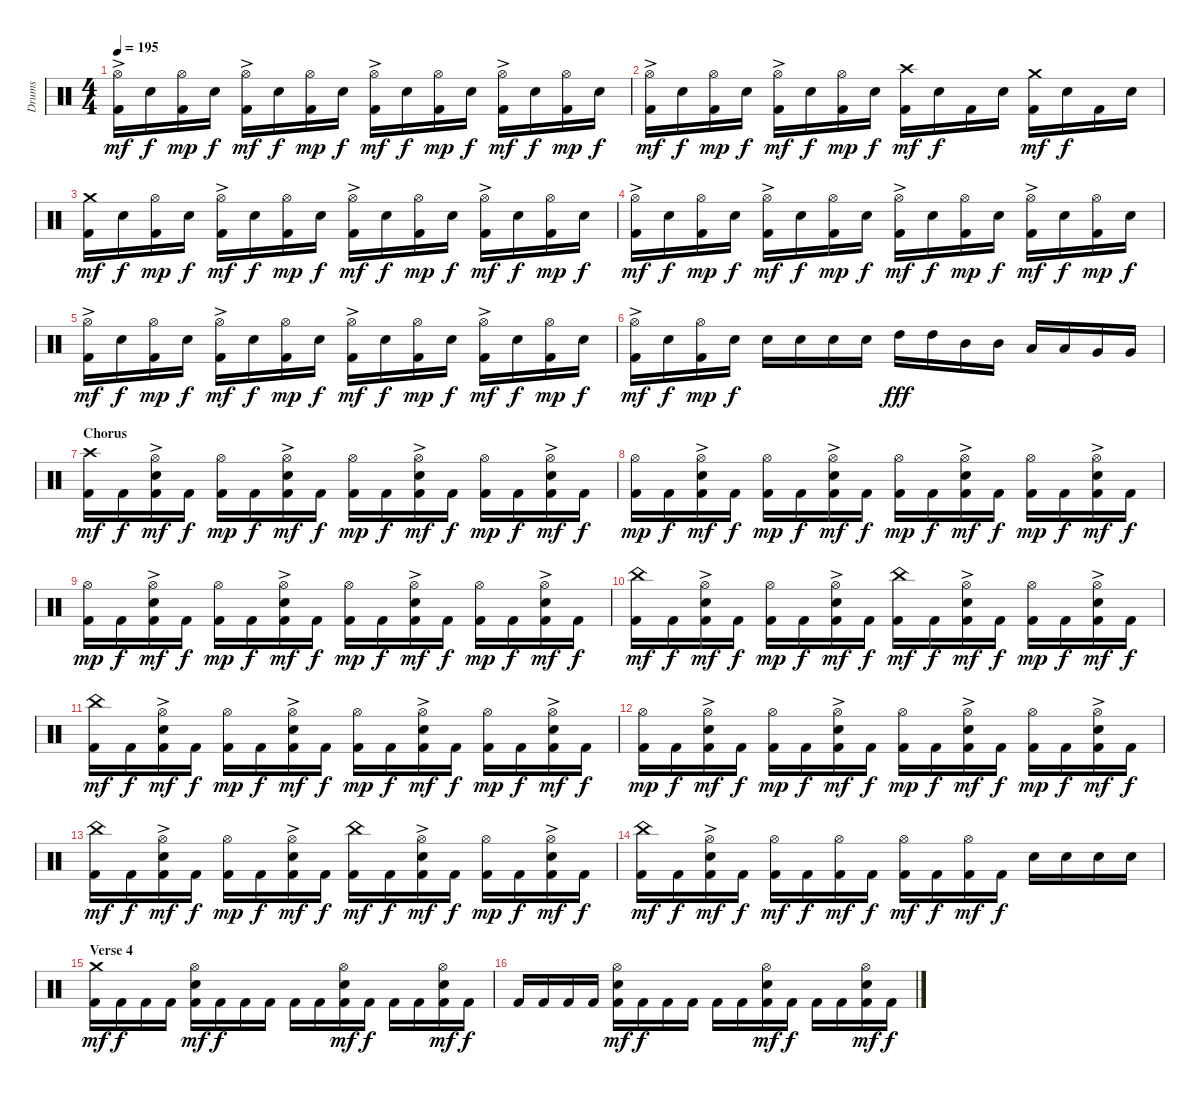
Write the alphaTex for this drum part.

\track ("Drums" "Drums") {instrument percussion}
\staff {score}
\articulation defaults
\ts (4 4)
\tempo 195
\clef neutral
\ks c
("Hi-Hat (open)"{ac} "Kick (hit) 2").16{dy mf} "Electric Snare (hit)".16{dy f} ("Hi-Hat (open)" "Kick (hit) 2").16{dy mp} "Electric Snare (hit)".16{dy f} ("Hi-Hat (open)"{ac} "Kick (hit) 2").16{dy mf} "Electric Snare (hit)".16{dy f} ("Hi-Hat (open)" "Kick (hit) 2").16{dy mp} "Electric Snare (hit)".16{dy f} ("Hi-Hat (open)"{ac} "Kick (hit) 2").16{dy mf} "Electric Snare (hit)".16{dy f} ("Hi-Hat (open)" "Kick (hit) 2").16{dy mp} "Electric Snare (hit)".16{dy f} ("Hi-Hat (open)"{ac} "Kick (hit) 2").16{dy mf} "Electric Snare (hit)".16{dy f} ("Hi-Hat (open)" "Kick (hit) 2").16{dy mp} "Electric Snare (hit)".16{dy f} |
("Hi-Hat (open)"{ac} "Kick (hit) 2").16{dy mf} "Electric Snare (hit)".16{dy f} ("Hi-Hat (open)" "Kick (hit) 2").16{dy mp} "Electric Snare (hit)".16{dy f} ("Hi-Hat (open)"{ac} "Kick (hit) 2").16{dy mf} "Electric Snare (hit)".16{dy f} ("Hi-Hat (open)" "Kick (hit) 2").16{dy mp} "Electric Snare (hit)".16{dy f} ("Crash high (hit)" "Kick (hit) 2").16{dy mf} "Electric Snare (hit)".16{dy f} "Kick (hit) 2".16 "Electric Snare (hit)".16 ("Crash medium (hit)" "Kick (hit) 2").16{dy mf} "Electric Snare (hit)".16{dy f} "Kick (hit) 2".16 "Electric Snare (hit)".16 |
("Crash medium (hit)" "Kick (hit) 2").16{dy mf} "Electric Snare (hit)".16{dy f} ("Hi-Hat (open)" "Kick (hit) 2").16{dy mp} "Electric Snare (hit)".16{dy f} ("Hi-Hat (open)"{ac} "Kick (hit) 2").16{dy mf} "Electric Snare (hit)".16{dy f} ("Hi-Hat (open)" "Kick (hit) 2").16{dy mp} "Electric Snare (hit)".16{dy f} ("Hi-Hat (open)"{ac} "Kick (hit) 2").16{dy mf} "Electric Snare (hit)".16{dy f} ("Hi-Hat (open)" "Kick (hit) 2").16{dy mp} "Electric Snare (hit)".16{dy f} ("Hi-Hat (open)"{ac} "Kick (hit) 2").16{dy mf} "Electric Snare (hit)".16{dy f} ("Hi-Hat (open)" "Kick (hit) 2").16{dy mp} "Electric Snare (hit)".16{dy f} |
("Hi-Hat (open)"{ac} "Kick (hit) 2").16{dy mf} "Electric Snare (hit)".16{dy f} ("Hi-Hat (open)" "Kick (hit) 2").16{dy mp} "Electric Snare (hit)".16{dy f} ("Hi-Hat (open)"{ac} "Kick (hit) 2").16{dy mf} "Electric Snare (hit)".16{dy f} ("Hi-Hat (open)" "Kick (hit) 2").16{dy mp} "Electric Snare (hit)".16{dy f} ("Hi-Hat (open)"{ac} "Kick (hit) 2").16{dy mf} "Electric Snare (hit)".16{dy f} ("Hi-Hat (open)" "Kick (hit) 2").16{dy mp} "Electric Snare (hit)".16{dy f} ("Hi-Hat (open)"{ac} "Kick (hit) 2").16{dy mf} "Electric Snare (hit)".16{dy f} ("Hi-Hat (open)" "Kick (hit) 2").16{dy mp} "Electric Snare (hit)".16{dy f} |
("Hi-Hat (open)"{ac} "Kick (hit) 2").16{dy mf} "Electric Snare (hit)".16{dy f} ("Hi-Hat (open)" "Kick (hit) 2").16{dy mp} "Electric Snare (hit)".16{dy f} ("Hi-Hat (open)"{ac} "Kick (hit) 2").16{dy mf} "Electric Snare (hit)".16{dy f} ("Hi-Hat (open)" "Kick (hit) 2").16{dy mp} "Electric Snare (hit)".16{dy f} ("Hi-Hat (open)"{ac} "Kick (hit) 2").16{dy mf} "Electric Snare (hit)".16{dy f} ("Hi-Hat (open)" "Kick (hit) 2").16{dy mp} "Electric Snare (hit)".16{dy f} ("Hi-Hat (open)"{ac} "Kick (hit) 2").16{dy mf} "Electric Snare (hit)".16{dy f} ("Hi-Hat (open)" "Kick (hit) 2").16{dy mp} "Electric Snare (hit)".16{dy f} |
("Hi-Hat (open)"{ac} "Kick (hit) 2").16{dy mf} "Electric Snare (hit)".16{dy f} ("Hi-Hat (open)" "Kick (hit) 2").16{dy mp} "Electric Snare (hit)".16{dy f} "Electric Snare (hit)".16 "Electric Snare (hit)".16 "Electric Snare (hit)".16 "Electric Snare (hit)".16 "High Tom (hit)".16{dy fff} "High Tom (hit)".16 "Mid Tom (hit)".16 "Mid Tom (hit)".16 "Low Tom (hit)".16 "Low Tom (hit)".16 "Very Low Tom (hit)".16 "Very Low Tom (hit)".16 |
\section ("" "Chorus")
("Crash high (hit)" "Kick (hit) 2").16{dy mf} "Kick (hit) 2".16{dy f} ("Hi-Hat (open)"{ac} "Electric Snare (hit)" "Kick (hit) 2").16{dy mf} "Kick (hit) 2".16{dy f} ("Hi-Hat (open)" "Kick (hit) 2").16{dy mp} "Kick (hit) 2".16{dy f} ("Hi-Hat (open)"{ac} "Electric Snare (hit)" "Kick (hit) 2").16{dy mf} "Kick (hit) 2".16{dy f} ("Hi-Hat (open)" "Kick (hit) 2").16{dy mp} "Kick (hit) 2".16{dy f} ("Hi-Hat (open)"{ac} "Electric Snare (hit)" "Kick (hit) 2").16{dy mf} "Kick (hit) 2".16{dy f} ("Hi-Hat (open)" "Kick (hit) 2").16{dy mp} "Kick (hit) 2".16{dy f} ("Hi-Hat (open)"{ac} "Electric Snare (hit)" "Kick (hit) 2").16{dy mf} "Kick (hit) 2".16{dy f} |
("Hi-Hat (open)" "Kick (hit) 2").16{dy mp} "Kick (hit) 2".16{dy f} ("Hi-Hat (open)"{ac} "Electric Snare (hit)" "Kick (hit) 2").16{dy mf} "Kick (hit) 2".16{dy f} ("Hi-Hat (open)" "Kick (hit) 2").16{dy mp} "Kick (hit) 2".16{dy f} ("Hi-Hat (open)"{ac} "Electric Snare (hit)" "Kick (hit) 2").16{dy mf} "Kick (hit) 2".16{dy f} ("Hi-Hat (open)" "Kick (hit) 2").16{dy mp} "Kick (hit) 2".16{dy f} ("Hi-Hat (open)"{ac} "Electric Snare (hit)" "Kick (hit) 2").16{dy mf} "Kick (hit) 2".16{dy f} ("Hi-Hat (open)" "Kick (hit) 2").16{dy mp} "Kick (hit) 2".16{dy f} ("Hi-Hat (open)"{ac} "Electric Snare (hit)" "Kick (hit) 2").16{dy mf} "Kick (hit) 2".16{dy f} |
("Hi-Hat (open)" "Kick (hit) 2").16{dy mp} "Kick (hit) 2".16{dy f} ("Hi-Hat (open)"{ac} "Electric Snare (hit)" "Kick (hit) 2").16{dy mf} "Kick (hit) 2".16{dy f} ("Hi-Hat (open)" "Kick (hit) 2").16{dy mp} "Kick (hit) 2".16{dy f} ("Hi-Hat (open)"{ac} "Electric Snare (hit)" "Kick (hit) 2").16{dy mf} "Kick (hit) 2".16{dy f} ("Hi-Hat (open)" "Kick (hit) 2").16{dy mp} "Kick (hit) 2".16{dy f} ("Hi-Hat (open)"{ac} "Electric Snare (hit)" "Kick (hit) 2").16{dy mf} "Kick (hit) 2".16{dy f} ("Hi-Hat (open)" "Kick (hit) 2").16{dy mp} "Kick (hit) 2".16{dy f} ("Hi-Hat (open)"{ac} "Electric Snare (hit)" "Kick (hit) 2").16{dy mf} "Kick (hit) 2".16{dy f} |
("China (hit)" "Kick (hit) 2").16{dy mf} "Kick (hit) 2".16{dy f} ("Hi-Hat (open)"{ac} "Electric Snare (hit)" "Kick (hit) 2").16{dy mf} "Kick (hit) 2".16{dy f} ("Hi-Hat (open)" "Kick (hit) 2").16{dy mp} "Kick (hit) 2".16{dy f} ("Hi-Hat (open)"{ac} "Electric Snare (hit)" "Kick (hit) 2").16{dy mf} "Kick (hit) 2".16{dy f} ("China (hit)" "Kick (hit) 2").16{dy mf} "Kick (hit) 2".16{dy f} ("Hi-Hat (open)"{ac} "Electric Snare (hit)" "Kick (hit) 2").16{dy mf} "Kick (hit) 2".16{dy f} ("Hi-Hat (open)" "Kick (hit) 2").16{dy mp} "Kick (hit) 2".16{dy f} ("Hi-Hat (open)"{ac} "Electric Snare (hit)" "Kick (hit) 2").16{dy mf} "Kick (hit) 2".16{dy f} |
("China (hit)" "Kick (hit) 2").16{dy mf} "Kick (hit) 2".16{dy f} ("Hi-Hat (open)"{ac} "Electric Snare (hit)" "Kick (hit) 2").16{dy mf} "Kick (hit) 2".16{dy f} ("Hi-Hat (open)" "Kick (hit) 2").16{dy mp} "Kick (hit) 2".16{dy f} ("Hi-Hat (open)"{ac} "Electric Snare (hit)" "Kick (hit) 2").16{dy mf} "Kick (hit) 2".16{dy f} ("Hi-Hat (open)" "Kick (hit) 2").16{dy mp} "Kick (hit) 2".16{dy f} ("Hi-Hat (open)"{ac} "Electric Snare (hit)" "Kick (hit) 2").16{dy mf} "Kick (hit) 2".16{dy f} ("Hi-Hat (open)" "Kick (hit) 2").16{dy mp} "Kick (hit) 2".16{dy f} ("Hi-Hat (open)"{ac} "Electric Snare (hit)" "Kick (hit) 2").16{dy mf} "Kick (hit) 2".16{dy f} |
("Hi-Hat (open)" "Kick (hit) 2").16{dy mp} "Kick (hit) 2".16{dy f} ("Hi-Hat (open)"{ac} "Electric Snare (hit)" "Kick (hit) 2").16{dy mf} "Kick (hit) 2".16{dy f} ("Hi-Hat (open)" "Kick (hit) 2").16{dy mp} "Kick (hit) 2".16{dy f} ("Hi-Hat (open)"{ac} "Electric Snare (hit)" "Kick (hit) 2").16{dy mf} "Kick (hit) 2".16{dy f} ("Hi-Hat (open)" "Kick (hit) 2").16{dy mp} "Kick (hit) 2".16{dy f} ("Hi-Hat (open)"{ac} "Electric Snare (hit)" "Kick (hit) 2").16{dy mf} "Kick (hit) 2".16{dy f} ("Hi-Hat (open)" "Kick (hit) 2").16{dy mp} "Kick (hit) 2".16{dy f} ("Hi-Hat (open)"{ac} "Electric Snare (hit)" "Kick (hit) 2").16{dy mf} "Kick (hit) 2".16{dy f} |
("China (hit)" "Kick (hit) 2").16{dy mf} "Kick (hit) 2".16{dy f} ("Hi-Hat (open)"{ac} "Electric Snare (hit)" "Kick (hit) 2").16{dy mf} "Kick (hit) 2".16{dy f} ("Hi-Hat (open)" "Kick (hit) 2").16{dy mp} "Kick (hit) 2".16{dy f} ("Hi-Hat (open)"{ac} "Electric Snare (hit)" "Kick (hit) 2").16{dy mf} "Kick (hit) 2".16{dy f} ("China (hit)" "Kick (hit) 2").16{dy mf} "Kick (hit) 2".16{dy f} ("Hi-Hat (open)"{ac} "Electric Snare (hit)" "Kick (hit) 2").16{dy mf} "Kick (hit) 2".16{dy f} ("Hi-Hat (open)" "Kick (hit) 2").16{dy mp} "Kick (hit) 2".16{dy f} ("Hi-Hat (open)"{ac} "Electric Snare (hit)" "Kick (hit) 2").16{dy mf} "Kick (hit) 2".16{dy f} |
("China (hit)" "Kick (hit) 2").16{dy mf} "Kick (hit) 2".16{dy f} ("Hi-Hat (open)"{ac} "Electric Snare (hit)" "Kick (hit) 2").16{dy mf} "Kick (hit) 2".16{dy f} ("Hi-Hat (open)" "Kick (hit) 2").16{dy mf} "Kick (hit) 2".16{dy f} ("Hi-Hat (open)" "Kick (hit) 2").16{dy mf} "Kick (hit) 2".16{dy f} ("Hi-Hat (open)" "Kick (hit) 2").16{dy mf} "Kick (hit) 2".16{dy f} ("Hi-Hat (open)" "Kick (hit) 2").16{dy mf} "Kick (hit) 2".16{dy f} "Electric Snare (hit)".16 "Electric Snare (hit)".16 "Electric Snare (hit)".16 "Electric Snare (hit)".16 |
\section ("" "Verse 4")
("Crash medium (hit)" "Kick (hit) 2").16{dy mf} "Kick (hit) 2".16{dy f} "Kick (hit) 2".16 "Kick (hit) 2".16 ("Hi-Hat (open)" "Electric Snare (hit)" "Kick (hit) 2").16{dy mf} "Kick (hit) 2".16{dy f} "Kick (hit) 2".16 "Kick (hit) 2".16 "Kick (hit) 2".16 "Kick (hit) 2".16 ("Hi-Hat (open)" "Electric Snare (hit)" "Kick (hit) 2").16{dy mf} "Kick (hit) 2".16{dy f} "Kick (hit) 2".16 "Kick (hit) 2".16 ("Hi-Hat (open)" "Electric Snare (hit)" "Kick (hit) 2").16{dy mf} "Kick (hit) 2".16{dy f} |
"Kick (hit) 2".16 "Kick (hit) 2".16 "Kick (hit) 2".16 "Kick (hit) 2".16 ("Hi-Hat (open)" "Electric Snare (hit)" "Kick (hit) 2").16{dy mf} "Kick (hit) 2".16{dy f} "Kick (hit) 2".16 "Kick (hit) 2".16 "Kick (hit) 2".16 "Kick (hit) 2".16 ("Hi-Hat (open)" "Electric Snare (hit)" "Kick (hit) 2").16{dy mf} "Kick (hit) 2".16{dy f} "Kick (hit) 2".16 "Kick (hit) 2".16 ("Hi-Hat (open)" "Electric Snare (hit)" "Kick (hit) 2").16{dy mf} "Kick (hit) 2".16{dy f}
